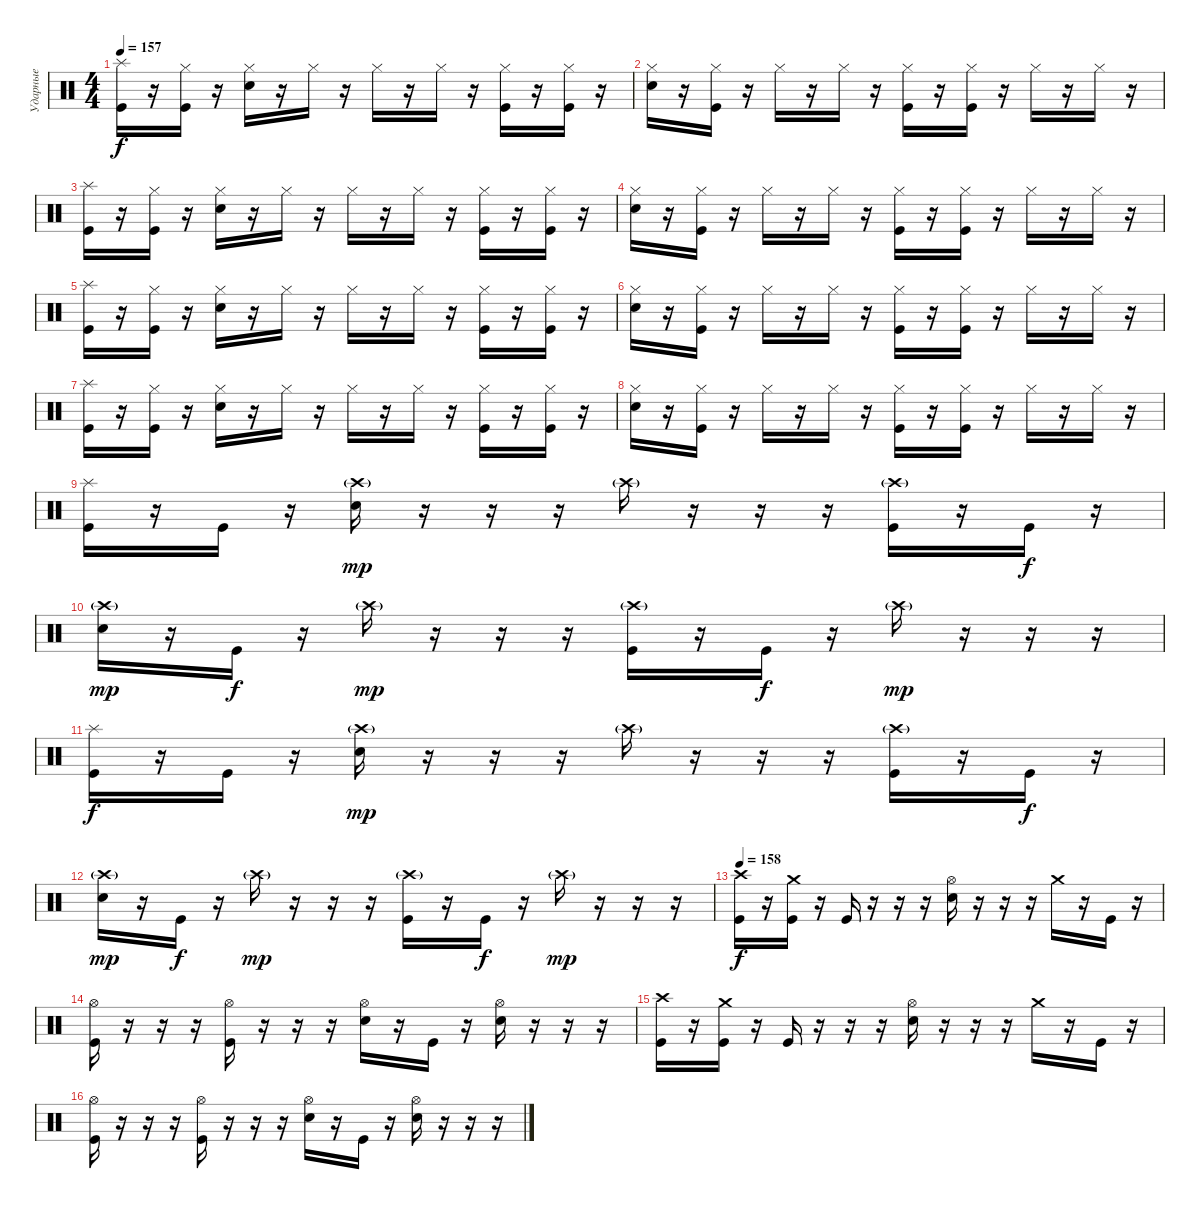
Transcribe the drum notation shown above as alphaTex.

\track ("Ударные" "Ударные") {instrument percussion}
\staff {score}
\articulation defaults
\ts (4 4)
\tempo 157
\clef neutral
\ks c
("Splash (hit)" "Kick (hit)").16{dy f} r.16 ("Hi-Hat (closed)" "Kick (hit)").16 r.16 ("Hi-Hat (closed)" "Electric Snare (hit)").16 r.16 "Hi-Hat (closed)".16 r.16 "Hi-Hat (closed)".16 r.16 "Hi-Hat (closed)".16 r.16 ("Hi-Hat (closed)" "Kick (hit)").16 r.16 ("Hi-Hat (closed)" "Kick (hit)").16 r.16 |
("Hi-Hat (closed)" "Electric Snare (hit)").16 r.16 ("Hi-Hat (closed)" "Kick (hit)").16 r.16 "Hi-Hat (closed)".16 r.16 "Hi-Hat (closed)".16 r.16 ("Hi-Hat (closed)" "Kick (hit)").16 r.16 ("Hi-Hat (closed)" "Kick (hit)").16 r.16 "Hi-Hat (closed)".16 r.16 "Hi-Hat (closed)".16 r.16 |
("Splash (hit)" "Kick (hit)").16 r.16 ("Hi-Hat (closed)" "Kick (hit)").16 r.16 ("Hi-Hat (closed)" "Electric Snare (hit)").16 r.16 "Hi-Hat (closed)".16 r.16 "Hi-Hat (closed)".16 r.16 "Hi-Hat (closed)".16 r.16 ("Hi-Hat (closed)" "Kick (hit)").16 r.16 ("Hi-Hat (closed)" "Kick (hit)").16 r.16 |
("Hi-Hat (closed)" "Electric Snare (hit)").16 r.16 ("Hi-Hat (closed)" "Kick (hit)").16 r.16 "Hi-Hat (closed)".16 r.16 "Hi-Hat (closed)".16 r.16 ("Hi-Hat (closed)" "Kick (hit)").16 r.16 ("Hi-Hat (closed)" "Kick (hit)").16 r.16 "Hi-Hat (closed)".16 r.16 "Hi-Hat (closed)".16 r.16 |
("Splash (hit)" "Kick (hit)").16 r.16 ("Hi-Hat (closed)" "Kick (hit)").16 r.16 ("Hi-Hat (closed)" "Electric Snare (hit)").16 r.16 "Hi-Hat (closed)".16 r.16 "Hi-Hat (closed)".16 r.16 "Hi-Hat (closed)".16 r.16 ("Hi-Hat (closed)" "Kick (hit)").16 r.16 ("Hi-Hat (closed)" "Kick (hit)").16 r.16 |
("Hi-Hat (closed)" "Electric Snare (hit)").16 r.16 ("Hi-Hat (closed)" "Kick (hit)").16 r.16 "Hi-Hat (closed)".16 r.16 "Hi-Hat (closed)".16 r.16 ("Hi-Hat (closed)" "Kick (hit)").16 r.16 ("Hi-Hat (closed)" "Kick (hit)").16 r.16 "Hi-Hat (closed)".16 r.16 "Hi-Hat (closed)".16 r.16 |
("Splash (hit)" "Kick (hit)").16 r.16 ("Hi-Hat (closed)" "Kick (hit)").16 r.16 ("Hi-Hat (closed)" "Electric Snare (hit)").16 r.16 "Hi-Hat (closed)".16 r.16 "Hi-Hat (closed)".16 r.16 "Hi-Hat (closed)".16 r.16 ("Hi-Hat (closed)" "Kick (hit)").16 r.16 ("Hi-Hat (closed)" "Kick (hit)").16 r.16 |
("Hi-Hat (closed)" "Electric Snare (hit)").16 r.16 ("Hi-Hat (closed)" "Kick (hit)").16 r.16 "Hi-Hat (closed)".16 r.16 "Hi-Hat (closed)".16 r.16 ("Hi-Hat (closed)" "Kick (hit)").16 r.16 ("Hi-Hat (closed)" "Kick (hit)").16 r.16 "Hi-Hat (closed)".16 r.16 "Hi-Hat (closed)".16 r.16 |
("Splash (hit)" "Kick (hit)").16 r.16 "Kick (hit)".16 r.16 ("Crash high (hit)"{g} "Electric Snare (hit)").16{dy mp} r.16 r.16 r.16 "Crash high (hit)"{g}.16 r.16 r.16 r.16 ("Crash high (hit)"{g} "Kick (hit)").16 r.16 "Kick (hit)".16{dy f} r.16 |
("Crash high (hit)"{g} "Electric Snare (hit)").16{dy mp} r.16 "Kick (hit)".16{dy f} r.16 "Crash high (hit)"{g}.16{dy mp} r.16 r.16 r.16 ("Crash high (hit)"{g} "Kick (hit)").16 r.16 "Kick (hit)".16{dy f} r.16 "Crash high (hit)"{g}.16{dy mp} r.16 r.16 r.16 |
("Splash (hit)" "Kick (hit)").16{dy f} r.16 "Kick (hit)".16 r.16 ("Crash high (hit)"{g} "Electric Snare (hit)").16{dy mp} r.16 r.16 r.16 "Crash high (hit)"{g}.16 r.16 r.16 r.16 ("Crash high (hit)"{g} "Kick (hit)").16 r.16 "Kick (hit)".16{dy f} r.16 |
("Crash high (hit)"{g} "Electric Snare (hit)").16{dy mp} r.16 "Kick (hit)".16{dy f} r.16 "Crash high (hit)"{g}.16{dy mp} r.16 r.16 r.16 ("Crash high (hit)"{g} "Kick (hit)").16 r.16 "Kick (hit)".16{dy f} r.16 "Crash high (hit)"{g}.16{dy mp} r.16 r.16 r.16 |
\tempo 158
("Crash high (hit)" "Kick (hit)").16{dy f} r.16 ("Crash medium (hit)" "Kick (hit)").16 r.16 "Kick (hit)".16 r.16 r.16 r.16 ("Hi-Hat (open)" "Electric Snare (hit)").16 r.16 r.16 r.16 "Crash medium (hit)".16 r.16 "Kick (hit)".16 r.16 |
("Hi-Hat (open)" "Kick (hit)").16 r.16 r.16 r.16 ("Hi-Hat (open)" "Kick (hit)").16 r.16 r.16 r.16 ("Hi-Hat (open)" "Electric Snare (hit)").16 r.16 "Kick (hit)".16 r.16 ("Hi-Hat (open)" "Electric Snare (hit)").16 r.16 r.16 r.16 |
("Crash high (hit)" "Kick (hit)").16 r.16 ("Crash medium (hit)" "Kick (hit)").16 r.16 "Kick (hit)".16 r.16 r.16 r.16 ("Hi-Hat (open)" "Electric Snare (hit)").16 r.16 r.16 r.16 "Crash medium (hit)".16 r.16 "Kick (hit)".16 r.16 |
("Hi-Hat (open)" "Kick (hit)").16 r.16 r.16 r.16 ("Hi-Hat (open)" "Kick (hit)").16 r.16 r.16 r.16 ("Hi-Hat (open)" "Electric Snare (hit)").16 r.16 "Kick (hit)".16 r.16 ("Hi-Hat (open)" "Electric Snare (hit)").16 r.16 r.16 r.16
